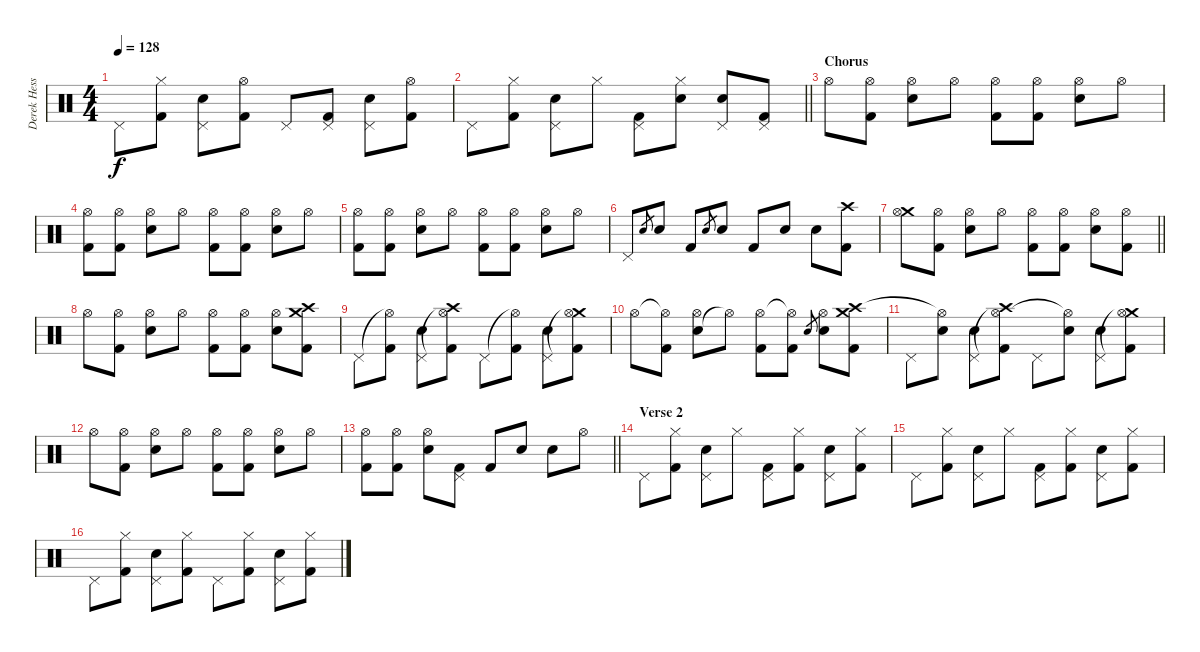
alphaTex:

\track ("Derek Hess (Drums and Percussion)" "Derek Hess") {instrument percussion}
\staff {score}
\articulation defaults
\ts (4 4)
\tempo 128
\clef neutral
\ks c "Pedal Hi-Hat (hit)".8{dy f}
("Hi-Hat (closed)" "Kick (hit) 2").8 ("Snare (hit) 2" "Pedal Hi-Hat (hit)").8 ("Hi-Hat (open)" "Kick (hit) 2").8 "Pedal Hi-Hat (hit)".8 ("Pedal Hi-Hat (hit)" "Kick (hit) 2").8 ("Snare (hit) 2" "Pedal Hi-Hat (hit)").8 ("Hi-Hat (open)" "Kick (hit) 2").8 |
\barLineRight lightlight "Pedal Hi-Hat (hit)".8
("Hi-Hat (closed)" "Kick (hit) 2").8 ("Snare (hit) 2" "Pedal Hi-Hat (hit)").8 "Hi-Hat (closed)".8 ("Pedal Hi-Hat (hit)" "Kick (hit) 2").8 ("Snare (hit) 2" "Hi-Hat (closed)").8 ("Snare (hit) 2" "Pedal Hi-Hat (hit)").8 ("Pedal Hi-Hat (hit)" "Kick (hit) 2").8 |
\section ("" "Chorus")
"Hi-Hat (open)".8 ("Hi-Hat (open)" "Kick (hit) 2").8 ("Snare (hit) 2" "Hi-Hat (open)").8 "Hi-Hat (open)".8 ("Hi-Hat (open)" "Kick (hit) 2").8 ("Hi-Hat (open)" "Kick (hit) 2").8 ("Snare (hit) 2" "Hi-Hat (open)").8 "Hi-Hat (open)".8 |
("Hi-Hat (open)" "Kick (hit) 2").8 ("Hi-Hat (open)" "Kick (hit) 2").8 ("Snare (hit) 2" "Hi-Hat (open)").8 "Hi-Hat (open)".8 ("Hi-Hat (open)" "Kick (hit) 2").8 ("Hi-Hat (open)" "Kick (hit) 2").8 ("Snare (hit) 2" "Hi-Hat (open)").8 "Hi-Hat (open)".8 |
("Hi-Hat (open)" "Kick (hit) 2").8 ("Hi-Hat (open)" "Kick (hit) 2").8 ("Snare (hit) 2" "Hi-Hat (open)").8 "Hi-Hat (open)".8 ("Hi-Hat (open)" "Kick (hit) 2").8 ("Hi-Hat (open)" "Kick (hit) 2").8 ("Snare (hit) 2" "Hi-Hat (open)").8 "Hi-Hat (open)".8 |
"Pedal Hi-Hat (hit)".8 "Snare (hit) 2".8{gr} "Snare (hit) 2".8 "Kick (hit) 2".8 "Snare (hit) 2".8{gr} "Snare (hit) 2".8 "Kick (hit) 2".8 "Snare (hit) 2".8 "Snare (hit) 2".8 ("Crash high (hit)" "Kick (hit) 2").8 |
\barLineRight lightlight
("Crash medium (hit)" "Hi-Hat (open)").8 ("Hi-Hat (open)" "Kick (hit) 2").8 ("Snare (hit) 2" "Hi-Hat (open)").8 "Hi-Hat (open)".8 ("Hi-Hat (open)" "Kick (hit) 2").8 ("Hi-Hat (open)" "Kick (hit) 2").8 ("Snare (hit) 2" "Hi-Hat (open)").8 ("Hi-Hat (open)" "Kick (hit) 2").8 |
"Hi-Hat (open)".8 ("Hi-Hat (open)" "Kick (hit) 2").8 ("Snare (hit) 2" "Hi-Hat (open)").8 "Hi-Hat (open)".8 ("Hi-Hat (open)" "Kick (hit) 2").8 ("Hi-Hat (open)" "Kick (hit) 2").8 ("Snare (hit) 2" "Hi-Hat (open)").8 ("Crash medium (hit)" "Crash high (hit)" "Kick (hit) 2").8 |
"Pedal Hi-Hat (hit)".8 ("Hi-Hat (open)"{t} "Kick (hit) 2").8 ("Snare (hit) 2" "Pedal Hi-Hat (hit)").8 ("Crash high (hit)" "Hi-Hat (open)"{t} "Kick (hit) 2").8 "Pedal Hi-Hat (hit)".8 ("Hi-Hat (open)"{t} "Kick (hit) 2").8 ("Snare (hit) 2" "Pedal Hi-Hat (hit)").8 ("Crash medium (hit)" "Hi-Hat (open)"{t} "Kick (hit) 2").8 |
"Hi-Hat (open)".8 ("Hi-Hat (open)"{t} "Kick (hit) 2").8 ("Snare (hit) 2" "Hi-Hat (open)").8 "Hi-Hat (open)"{t}.8 ("Hi-Hat (open)" "Kick (hit) 2").8 ("Hi-Hat (open)"{t} "Kick (hit) 2").8 "Snare (hit) 2".8{gr} ("Snare (hit) 2" "Hi-Hat (open)").8 ("Crash medium (hit)" "Crash high (hit)" "Kick (hit) 2").8 |
"Pedal Hi-Hat (hit)".8 ("Snare (hit) 2" "Hi-Hat (open)"{t}).8 ("Snare (hit) 2" "Pedal Hi-Hat (hit)").8 ("Crash high (hit)" "Hi-Hat (open)"{t} "Kick (hit) 2").8 "Pedal Hi-Hat (hit)".8 ("Snare (hit) 2" "Hi-Hat (open)"{t}).8 ("Snare (hit) 2" "Pedal Hi-Hat (hit)").8 ("Crash medium (hit)" "Hi-Hat (open)"{t} "Kick (hit) 2").8 |
"Hi-Hat (open)".8 ("Hi-Hat (open)" "Kick (hit) 2").8 ("Snare (hit) 2" "Hi-Hat (open)").8 "Hi-Hat (open)".8 ("Hi-Hat (open)" "Kick (hit) 2").8 ("Hi-Hat (open)" "Kick (hit) 2").8 ("Snare (hit) 2" "Hi-Hat (open)").8 "Hi-Hat (open)".8 |
\barLineRight lightlight
("Hi-Hat (open)" "Kick (hit) 2").8 ("Hi-Hat (open)" "Kick (hit) 2").8 ("Snare (hit) 2" "Hi-Hat (open)").8 ("Pedal Hi-Hat (hit)" "Kick (hit) 2").8 "Kick (hit) 2".8 "Snare (hit) 2".8 "Snare (hit) 2".8 "Hi-Hat (open)".8 |
\section ("" "Verse 2")
"Pedal Hi-Hat (hit)".8 ("Hi-Hat (closed)" "Kick (hit) 2").8 ("Snare (hit) 2" "Pedal Hi-Hat (hit)").8 "Hi-Hat (closed)".8 ("Pedal Hi-Hat (hit)" "Kick (hit) 2").8 ("Hi-Hat (closed)" "Kick (hit) 2").8 ("Snare (hit) 2" "Pedal Hi-Hat (hit)").8 ("Hi-Hat (closed)" "Kick (hit) 2").8 |
"Pedal Hi-Hat (hit)".8 ("Hi-Hat (closed)" "Kick (hit) 2").8 ("Snare (hit) 2" "Pedal Hi-Hat (hit)").8 "Hi-Hat (closed)".8 ("Pedal Hi-Hat (hit)" "Kick (hit) 2").8 ("Hi-Hat (closed)" "Kick (hit) 2").8 ("Snare (hit) 2" "Pedal Hi-Hat (hit)").8 ("Hi-Hat (closed)" "Kick (hit) 2").8 |
"Pedal Hi-Hat (hit)".8 ("Hi-Hat (closed)" "Kick (hit) 2").8 ("Snare (hit) 2" "Pedal Hi-Hat (hit)").8 ("Hi-Hat (closed)" "Kick (hit) 2").8 "Pedal Hi-Hat (hit)".8 ("Hi-Hat (closed)" "Kick (hit) 2").8 ("Snare (hit) 2" "Pedal Hi-Hat (hit)").8 ("Hi-Hat (closed)" "Kick (hit) 2").8
